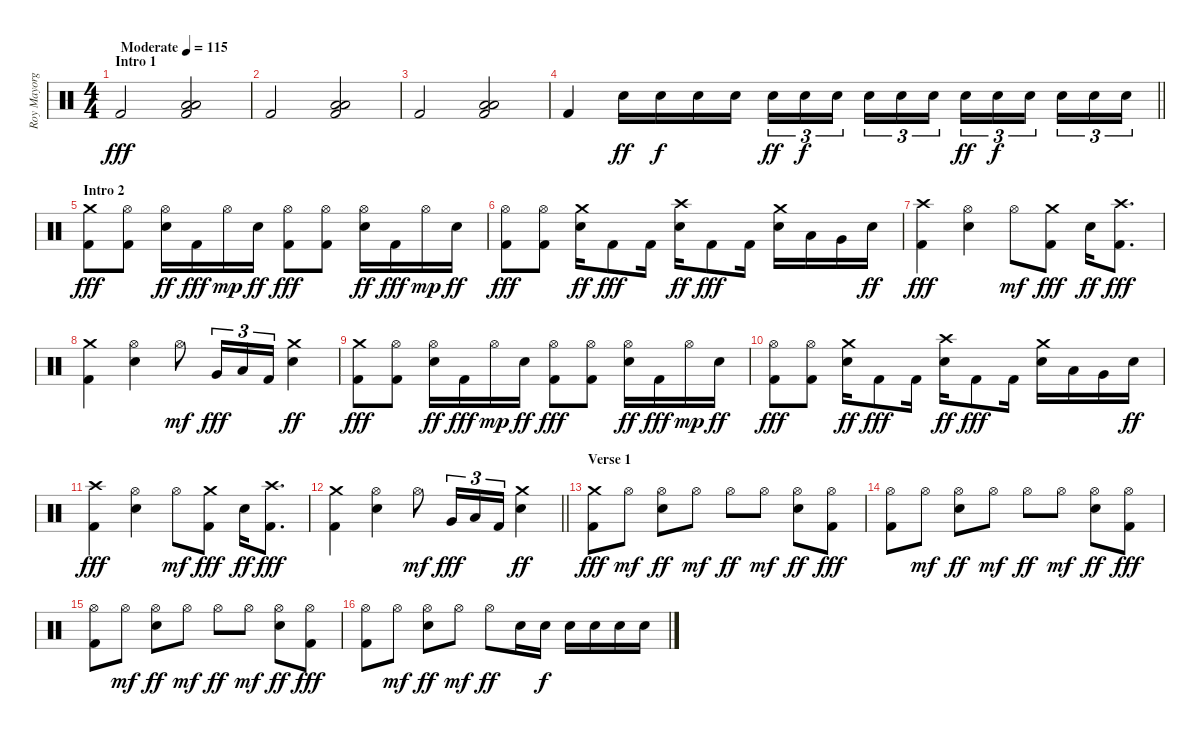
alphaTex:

\track ("Roy Mayorga" "Roy Mayorg") {instrument percussion}
\staff {score}
\articulation defaults
\ts (4 4)
\section ("" "Intro 1")
\tempo (115 "Moderate")
\clef neutral
\ks c "Kick (hit) 2".2{dy fff}
("Low Floor Tom (hit)" "Low Floor Tom (hit)" "Kick (hit) 2").2 |
"Kick (hit) 2".2 ("Low Floor Tom (hit)" "Low Floor Tom (hit)" "Kick (hit) 2").2 |
"Kick (hit) 2".2 ("Low Floor Tom (hit)" "Low Floor Tom (hit)" "Kick (hit) 2").2 |
\barLineRight lightlight "Kick (hit) 2".4 "Electric Snare (hit)".16{dy ff} "Electric Snare (hit)".16{dy f} "Electric Snare (hit)".16 "Electric Snare (hit)".16 "Electric Snare (hit)".16{tu (3 2) dy ff} "Electric Snare (hit)".16{tu (3 2) dy f} "Electric Snare (hit)".16{tu (3 2) beam splitsecondary} "Electric Snare (hit)".16{tu (3 2)} "Electric Snare (hit)".16{tu (3 2)} "Electric Snare (hit)".16{tu (3 2)} "Electric Snare (hit)".16{tu (3 2) dy ff} "Electric Snare (hit)".16{tu (3 2) dy f} "Electric Snare (hit)".16{tu (3 2) beam splitsecondary} "Electric Snare (hit)".16{tu (3 2)} "Electric Snare (hit)".16{tu (3 2)} "Electric Snare (hit)".16{tu (3 2)}
|
\section ("" "Intro 2")
("Crash medium (hit)" "Kick (hit) 2").8{dy fff} ("Hi-Hat (open)" "Kick (hit) 2").8 ("Hi-Hat (open)" "Electric Snare (hit)").16{dy ff} "Kick (hit) 2".16{dy fff} "Hi-Hat (open)".16{dy mp} "Electric Snare (hit)".16{dy ff} ("Hi-Hat (open)" "Kick (hit) 2").8{dy fff} ("Hi-Hat (open)" "Kick (hit) 2").8 ("Hi-Hat (open)" "Electric Snare (hit)").16{dy ff} "Kick (hit) 2".16{dy fff} "Hi-Hat (open)".16{dy mp} "Electric Snare (hit)".16{dy ff} |
("Hi-Hat (open)" "Kick (hit) 2").8{dy fff} ("Hi-Hat (open)" "Kick (hit) 2").8 ("Crash medium (hit)" "Electric Snare (hit)").16{dy ff} "Kick (hit) 2".8{dy fff} "Kick (hit) 2".16 ("Crash high (hit)" "Electric Snare (hit)").16{dy ff} "Kick (hit) 2".8{dy fff} "Kick (hit) 2".16 ("Crash medium (hit)" "Electric Snare (hit)").16 "Low Tom (hit)".16 "Very Low Tom (hit)".16 "Electric Snare (hit)".16{dy ff} |
("Crash high (hit)" "Kick (hit) 2").4{dy fff} ("Hi-Hat (open)" "Electric Snare (hit)").4 "Hi-Hat (open)".8{dy mf} ("Crash medium (hit)" "Kick (hit) 2").8{dy fff} "Electric Snare (hit)".16{dy ff} ("Crash high (hit)" "Kick (hit) 2").8{d dy fff} |
("Crash medium (hit)" "Kick (hit) 2").4 ("Hi-Hat (open)" "Electric Snare (hit)").4 "Hi-Hat (open)".8{dy mf} "Very Low Tom (hit)".16{tu (3 2) dy fff} "Low Floor Tom (hit)".16{tu (3 2)} "Kick (hit) 2".16{tu (3 2)} ("Crash medium (hit)" "Electric Snare (hit)").4{dy ff} |
("Crash medium (hit)" "Kick (hit) 2").8{dy fff} ("Hi-Hat (open)" "Kick (hit) 2").8 ("Hi-Hat (open)" "Electric Snare (hit)").16{dy ff} "Kick (hit) 2".16{dy fff} "Hi-Hat (open)".16{dy mp} "Electric Snare (hit)".16{dy ff} ("Hi-Hat (open)" "Kick (hit) 2").8{dy fff} ("Hi-Hat (open)" "Kick (hit) 2").8 ("Hi-Hat (open)" "Electric Snare (hit)").16{dy ff} "Kick (hit) 2".16{dy fff} "Hi-Hat (open)".16{dy mp} "Electric Snare (hit)".16{dy ff} |
("Hi-Hat (open)" "Kick (hit) 2").8{dy fff} ("Hi-Hat (open)" "Kick (hit) 2").8 ("Crash medium (hit)" "Electric Snare (hit)").16{dy ff} "Kick (hit) 2".8{dy fff} "Kick (hit) 2".16 ("Crash high (hit)" "Electric Snare (hit)").16{dy ff} "Kick (hit) 2".8{dy fff} "Kick (hit) 2".16 ("Crash medium (hit)" "Electric Snare (hit)").16 "Low Tom (hit)".16 "Very Low Tom (hit)".16 "Electric Snare (hit)".16{dy ff} |
("Crash high (hit)" "Kick (hit) 2").4{dy fff} ("Hi-Hat (open)" "Electric Snare (hit)").4 "Hi-Hat (open)".8{dy mf} ("Crash medium (hit)" "Kick (hit) 2").8{dy fff} "Electric Snare (hit)".16{dy ff} ("Crash high (hit)" "Kick (hit) 2").8{d dy fff} |
\barLineRight lightlight
("Crash medium (hit)" "Kick (hit) 2").4 ("Hi-Hat (open)" "Electric Snare (hit)").4 "Hi-Hat (open)".8{dy mf} "Very Low Tom (hit)".16{tu (3 2) dy fff} "Low Floor Tom (hit)".16{tu (3 2)} "Kick (hit) 2".16{tu (3 2)} ("Crash medium (hit)" "Electric Snare (hit)").4{dy ff} |
\section ("" "Verse 1")
("Crash medium (hit)" "Kick (hit) 2").8{dy fff} "Hi-Hat (open)".8{dy mf} ("Hi-Hat (open)" "Electric Snare (hit)").8{dy ff} "Hi-Hat (open)".8{dy mf} "Hi-Hat (open)".8{dy ff} "Hi-Hat (open)".8{dy mf} ("Hi-Hat (open)" "Electric Snare (hit)").8{dy ff} ("Hi-Hat (open)" "Kick (hit) 2").8{dy fff} |
("Hi-Hat (open)" "Kick (hit) 2").8 "Hi-Hat (open)".8{dy mf} ("Hi-Hat (open)" "Electric Snare (hit)").8{dy ff} "Hi-Hat (open)".8{dy mf} "Hi-Hat (open)".8{dy ff} "Hi-Hat (open)".8{dy mf} ("Hi-Hat (open)" "Electric Snare (hit)").8{dy ff} ("Hi-Hat (open)" "Kick (hit) 2").8{dy fff} |
("Hi-Hat (open)" "Kick (hit) 2").8 "Hi-Hat (open)".8{dy mf} ("Hi-Hat (open)" "Electric Snare (hit)").8{dy ff} "Hi-Hat (open)".8{dy mf} "Hi-Hat (open)".8{dy ff} "Hi-Hat (open)".8{dy mf} ("Hi-Hat (open)" "Electric Snare (hit)").8{dy ff} ("Hi-Hat (open)" "Kick (hit) 2").8{dy fff} |
("Hi-Hat (open)" "Kick (hit) 2").8 "Hi-Hat (open)".8{dy mf} ("Hi-Hat (open)" "Electric Snare (hit)").8{dy ff} "Hi-Hat (open)".8{dy mf} "Hi-Hat (open)".8{dy ff} "Electric Snare (hit)".16 "Electric Snare (hit)".16{dy f} "Electric Snare (hit)".16 "Electric Snare (hit)".16 "Electric Snare (hit)".16 "Electric Snare (hit)".16
